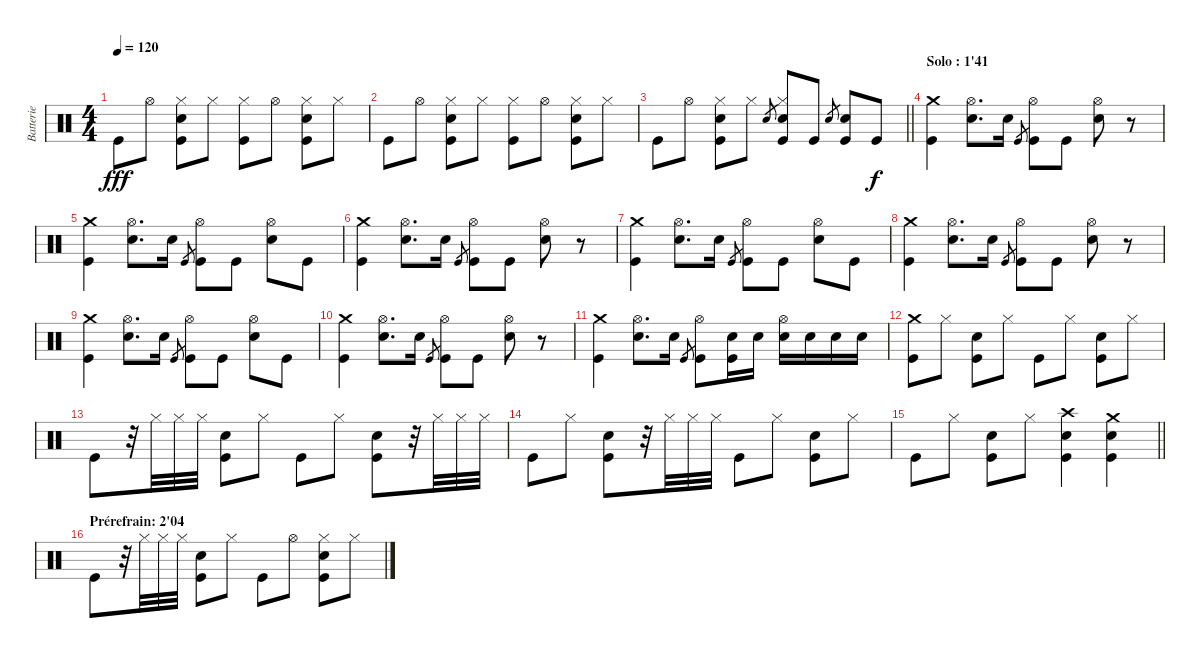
\track ("Batterie" "Batterie") {instrument percussion}
\staff {score}
\articulation defaults
\ts (4 4)
\tempo 120
\clef neutral
\ks c "Kick (hit)".8{dy fff} "Hi-Hat (open)".8
("Hi-Hat (closed)" "Snare (hit) 2" "Kick (hit)").8 "Hi-Hat (closed)".8 ("Hi-Hat (closed)" "Kick (hit)").8 "Hi-Hat (open)".8 ("Hi-Hat (closed)" "Snare (hit) 2" "Kick (hit)").8 "Hi-Hat (closed)".8 |
"Kick (hit)".8 "Hi-Hat (open)".8 ("Hi-Hat (closed)" "Snare (hit) 2" "Kick (hit)").8 "Hi-Hat (closed)".8 ("Hi-Hat (closed)" "Kick (hit)").8 "Hi-Hat (open)".8 ("Hi-Hat (closed)" "Snare (hit) 2" "Kick (hit)").8 "Hi-Hat (closed)".8 |
\barLineRight lightlight "Kick (hit)".8 "Hi-Hat (open)".8
("Hi-Hat (closed)" "Snare (hit) 2" "Kick (hit)").8 "Hi-Hat (closed)".8 "Snare (hit) 2".8{gr} ("Hi-Hat (closed)" "Snare (hit) 2" "Kick (hit)").8 "Kick (hit)".8 "Snare (hit) 2".8{gr} ("Snare (hit) 2" "Kick (hit)").8 "Kick (hit)".8{dy f} |
\section ("" "Solo : 1'41")
("Crash medium (hit)" "Kick (hit)").4 ("Hi-Hat (open)" "Snare (hit) 2").8{d} "Snare (hit) 2".16 "Kick (hit)".8{gr} ("Hi-Hat (open)" "Kick (hit)").8 "Kick (hit)".8 ("Hi-Hat (open)" "Snare (hit) 2").8 r.8 |
("Crash medium (hit)" "Kick (hit)").4 ("Hi-Hat (open)" "Snare (hit) 2").8{d} "Snare (hit) 2".16 "Kick (hit)".8{gr} ("Hi-Hat (open)" "Kick (hit)").8 "Kick (hit)".8 ("Hi-Hat (open)" "Snare (hit) 2").8 "Kick (hit)".8 |
("Crash medium (hit)" "Kick (hit)").4 ("Hi-Hat (open)" "Snare (hit) 2").8{d} "Snare (hit) 2".16 "Kick (hit)".8{gr} ("Hi-Hat (open)" "Kick (hit)").8 "Kick (hit)".8 ("Hi-Hat (open)" "Snare (hit) 2").8 r.8 |
("Crash medium (hit)" "Kick (hit)").4 ("Hi-Hat (open)" "Snare (hit) 2").8{d} "Snare (hit) 2".16 "Kick (hit)".8{gr} ("Hi-Hat (open)" "Kick (hit)").8 "Kick (hit)".8 ("Hi-Hat (open)" "Snare (hit) 2").8 "Kick (hit)".8 |
("Crash medium (hit)" "Kick (hit)").4 ("Hi-Hat (open)" "Snare (hit) 2").8{d} "Snare (hit) 2".16 "Kick (hit)".8{gr} ("Hi-Hat (open)" "Kick (hit)").8 "Kick (hit)".8 ("Hi-Hat (open)" "Snare (hit) 2").8 r.8 |
("Crash medium (hit)" "Kick (hit)").4 ("Hi-Hat (open)" "Snare (hit) 2").8{d} "Snare (hit) 2".16 "Kick (hit)".8{gr} ("Hi-Hat (open)" "Kick (hit)").8 "Kick (hit)".8 ("Hi-Hat (open)" "Snare (hit) 2").8 "Kick (hit)".8 |
("Crash medium (hit)" "Kick (hit)").4 ("Hi-Hat (open)" "Snare (hit) 2").8{d} "Snare (hit) 2".16 "Kick (hit)".8{gr} ("Hi-Hat (open)" "Kick (hit)").8 "Kick (hit)".8 ("Hi-Hat (open)" "Snare (hit) 2").8 r.8 |
("Crash medium (hit)" "Kick (hit)").4 ("Hi-Hat (open)" "Snare (hit) 2").8{d} "Snare (hit) 2".16 "Kick (hit)".8{gr} ("Hi-Hat (open)" "Kick (hit)").8 ("Snare (hit) 2" "Kick (hit)").16 "Snare (hit) 2".16 ("Hi-Hat (open)" "Snare (hit) 2").16 "Snare (hit) 2".16 "Snare (hit) 2".16 "Snare (hit) 2".16 |
("Crash medium (hit)" "Kick (hit)").8 "Hi-Hat (closed)".8 ("Snare (hit) 2" "Kick (hit)").8 "Hi-Hat (closed)".8 "Kick (hit)".8 "Hi-Hat (closed)".8 ("Snare (hit) 2" "Kick (hit)").8 "Hi-Hat (closed)".8 |
"Kick (hit)".8 r.32 "Hi-Hat (closed)".32 "Hi-Hat (closed)".32 "Hi-Hat (closed)".32 ("Snare (hit) 2" "Kick (hit)").8 "Hi-Hat (closed)".8 "Kick (hit)".8 "Hi-Hat (closed)".8 ("Snare (hit) 2" "Kick (hit)").8 r.32 "Hi-Hat (closed)".32 "Hi-Hat (closed)".32 "Hi-Hat (closed)".32 |
"Kick (hit)".8 "Hi-Hat (closed)".8 ("Snare (hit) 2" "Kick (hit)").8 r.32 "Hi-Hat (closed)".32 "Hi-Hat (closed)".32 "Hi-Hat (closed)".32 "Kick (hit)".8 "Hi-Hat (closed)".8 ("Snare (hit) 2" "Kick (hit)").8 "Hi-Hat (closed)".8 |
\barLineRight lightlight "Kick (hit)".8 "Hi-Hat (closed)".8
("Snare (hit) 2" "Kick (hit)").8 "Hi-Hat (closed)".8 ("Crash high (hit)" "Snare (hit) 2" "Kick (hit)").4 ("Crash medium (hit)" "Snare (hit) 2" "Kick (hit)").4 |
\section ("" "Prérefrain: 2'04")
"Kick (hit)".8 r.32 "Hi-Hat (closed)".32 "Hi-Hat (closed)".32 "Hi-Hat (closed)".32 ("Snare (hit) 2" "Kick (hit)").8 "Hi-Hat (closed)".8 "Kick (hit)".8 "Hi-Hat (open)".8 ("Hi-Hat (closed)" "Snare (hit) 2" "Kick (hit)").8 "Hi-Hat (closed)".8
